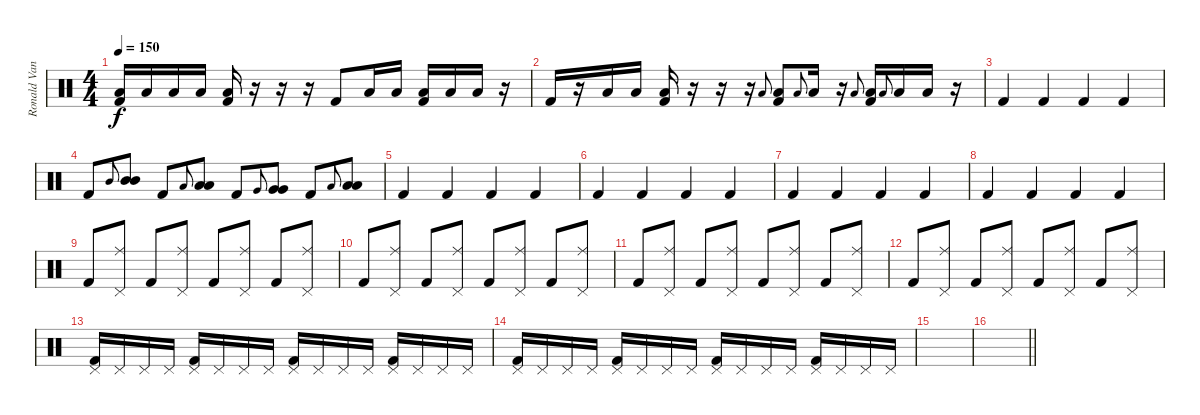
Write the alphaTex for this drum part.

\track ("Ronald Vanucci Jr (Drums)" "Ronald Van") {instrument percussion}
\staff {score}
\articulation defaults
\ts (4 4)
\tempo 150
\clef neutral
\ks c
("Low Floor Tom (hit)" "Kick (hit) 2").16{dy f} "Low Floor Tom (hit)".16 "Low Floor Tom (hit)".16 "Low Floor Tom (hit)".16 ("Low Floor Tom (hit)" "Kick (hit) 2").16 r.16 r.16 r.16 "Kick (hit) 2".8 "Low Floor Tom (hit)".16 "Low Floor Tom (hit)".16 ("Low Floor Tom (hit)" "Kick (hit) 2").16 "Low Floor Tom (hit)".16 "Low Floor Tom (hit)".16 r.16 |
"Kick (hit) 2".16 r.16 "Low Floor Tom (hit)".16 "Low Floor Tom (hit)".16 ("Low Floor Tom (hit)" "Kick (hit) 2").16 r.16 r.16 r.16 "Low Floor Tom (hit)".8{gr onbeat} ("Low Floor Tom (hit)" "Kick (hit) 2").8 "Low Floor Tom (hit)".8{gr onbeat} "Low Floor Tom (hit)".16 r.16 "Low Floor Tom (hit)".8{gr onbeat} ("Low Floor Tom (hit)" "Kick (hit) 2").16 "Low Floor Tom (hit)".8{gr onbeat} "Low Floor Tom (hit)".16 "Low Floor Tom (hit)".16 r.16 |
"Kick (hit) 2".4 "Kick (hit) 2".4 "Kick (hit) 2".4 "Kick (hit) 2".4 |
"Kick (hit) 2".8 "Mid Tom (hit)".8{gr onbeat} ("Mid Tom (hit)" "Mid Tom (hit)").8 "Kick (hit) 2".8 "Low Tom (hit)".8{gr onbeat} ("Low Tom (hit)" "Low Tom (hit)").8 "Kick (hit) 2".8 "Very Low Tom (hit)".8{gr onbeat} ("Very Low Tom (hit)" "Very Low Tom (hit)").8 "Kick (hit) 2".8 "Low Floor Tom (hit)".8{gr onbeat} ("Low Floor Tom (hit)" "Low Floor Tom (hit)").8 |
"Kick (hit) 2".4 "Kick (hit) 2".4 "Kick (hit) 2".4 "Kick (hit) 2".4 |
"Kick (hit) 2".4 "Kick (hit) 2".4 "Kick (hit) 2".4 "Kick (hit) 2".4 |
"Kick (hit) 2".4 "Kick (hit) 2".4 "Kick (hit) 2".4 "Kick (hit) 2".4 |
"Kick (hit) 2".4 "Kick (hit) 2".4 "Kick (hit) 2".4 "Kick (hit) 2".4 |
"Kick (hit) 2".8 ("Pedal Hi-Hat (hit)" "Ride (middle)").8 "Kick (hit) 2".8 ("Pedal Hi-Hat (hit)" "Ride (middle)").8 "Kick (hit) 2".8 ("Pedal Hi-Hat (hit)" "Ride (middle)").8 "Kick (hit) 2".8 ("Pedal Hi-Hat (hit)" "Ride (middle)").8 |
"Kick (hit) 2".8 ("Pedal Hi-Hat (hit)" "Ride (middle)").8 "Kick (hit) 2".8 ("Pedal Hi-Hat (hit)" "Ride (middle)").8 "Kick (hit) 2".8 ("Pedal Hi-Hat (hit)" "Ride (middle)").8 "Kick (hit) 2".8 ("Pedal Hi-Hat (hit)" "Ride (middle)").8 |
"Kick (hit) 2".8 ("Pedal Hi-Hat (hit)" "Ride (middle)").8 "Kick (hit) 2".8 ("Pedal Hi-Hat (hit)" "Ride (middle)").8 "Kick (hit) 2".8 ("Pedal Hi-Hat (hit)" "Ride (middle)").8 "Kick (hit) 2".8 ("Pedal Hi-Hat (hit)" "Ride (middle)").8 |
"Kick (hit) 2".8 ("Pedal Hi-Hat (hit)" "Ride (middle)").8 "Kick (hit) 2".8 ("Pedal Hi-Hat (hit)" "Ride (middle)").8 "Kick (hit) 2".8 ("Pedal Hi-Hat (hit)" "Ride (middle)").8 "Kick (hit) 2".8 ("Pedal Hi-Hat (hit)" "Ride (middle)").8 |
("Pedal Hi-Hat (hit)" "Kick (hit) 2").16 "Pedal Hi-Hat (hit)".16 "Pedal Hi-Hat (hit)".16 "Pedal Hi-Hat (hit)".16 ("Pedal Hi-Hat (hit)" "Kick (hit) 2").16 "Pedal Hi-Hat (hit)".16 "Pedal Hi-Hat (hit)".16 "Pedal Hi-Hat (hit)".16 ("Pedal Hi-Hat (hit)" "Kick (hit) 2").16 "Pedal Hi-Hat (hit)".16 "Pedal Hi-Hat (hit)".16 "Pedal Hi-Hat (hit)".16 ("Pedal Hi-Hat (hit)" "Kick (hit) 2").16 "Pedal Hi-Hat (hit)".16 "Pedal Hi-Hat (hit)".16 "Pedal Hi-Hat (hit)".16 |
("Pedal Hi-Hat (hit)" "Kick (hit) 2").16 "Pedal Hi-Hat (hit)".16 "Pedal Hi-Hat (hit)".16 "Pedal Hi-Hat (hit)".16 ("Pedal Hi-Hat (hit)" "Kick (hit) 2").16 "Pedal Hi-Hat (hit)".16 "Pedal Hi-Hat (hit)".16 "Pedal Hi-Hat (hit)".16 ("Pedal Hi-Hat (hit)" "Kick (hit) 2").16 "Pedal Hi-Hat (hit)".16 "Pedal Hi-Hat (hit)".16 "Pedal Hi-Hat (hit)".16 ("Pedal Hi-Hat (hit)" "Kick (hit) 2").16 "Pedal Hi-Hat (hit)".16 "Pedal Hi-Hat (hit)".16 "Pedal Hi-Hat (hit)".16 |
|
\barLineRight lightlight
